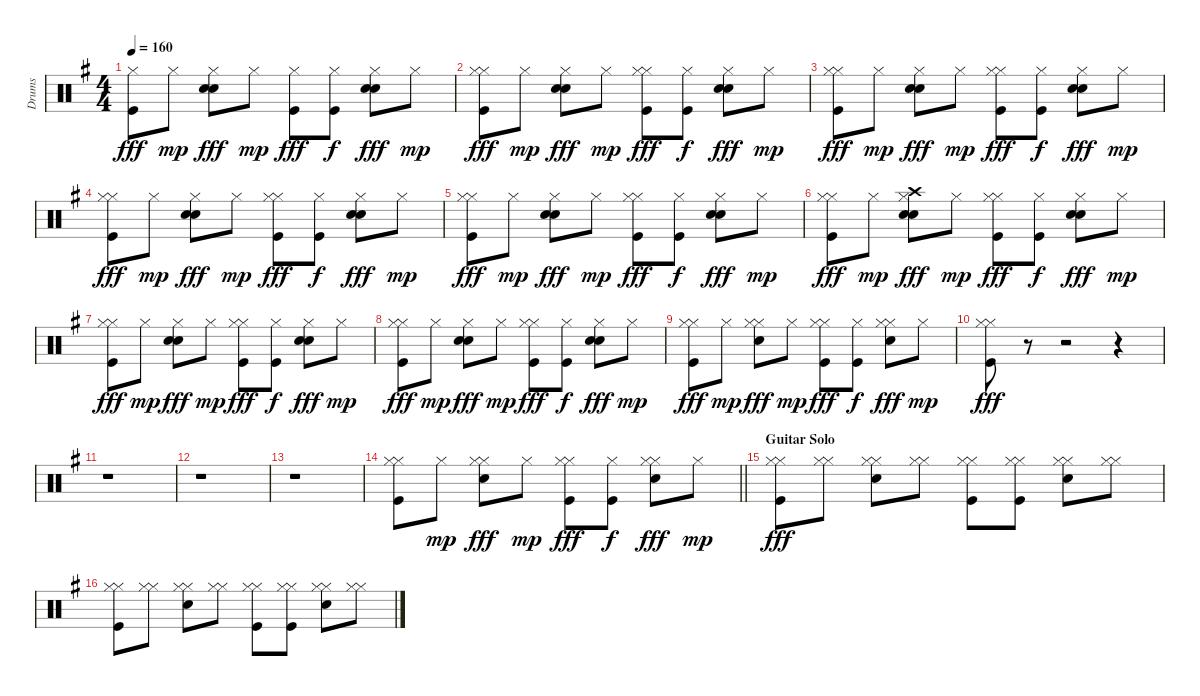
\track ("Drums" "Drums") {instrument percussion}
\staff {score}
\articulation defaults
\ts (4 4)
\tempo 160
\clef neutral
\ks g
("Hi-Hat (closed)" "Kick (hit)").8{dy fff} "Hi-Hat (closed)".8{dy mp} ("Snare (hit) 2" "Hi-Hat (closed)" "Electric Snare (hit)").8{dy fff} "Hi-Hat (closed)".8{dy mp} ("Hi-Hat (closed)" "Kick (hit)").8{dy fff} ("Hi-Hat (closed)" "Kick (hit)").8{dy f} ("Snare (hit) 2" "Hi-Hat (closed)" "Electric Snare (hit)").8{dy fff} "Hi-Hat (closed)".8{dy mp} |
("Hi-Hat (closed)" "Kick (hit)" "Hi-Hat (closed)").8{dy fff} "Hi-Hat (closed)".8{dy mp} ("Snare (hit) 2" "Hi-Hat (closed)" "Electric Snare (hit)").8{dy fff} "Hi-Hat (closed)".8{dy mp} ("Hi-Hat (closed)" "Kick (hit)" "Hi-Hat (closed)").8{dy fff} ("Hi-Hat (closed)" "Kick (hit)").8{dy f} ("Snare (hit) 2" "Hi-Hat (closed)" "Electric Snare (hit)").8{dy fff} "Hi-Hat (closed)".8{dy mp} |
("Hi-Hat (closed)" "Kick (hit)" "Hi-Hat (closed)").8{dy fff} "Hi-Hat (closed)".8{dy mp} ("Snare (hit) 2" "Hi-Hat (closed)" "Electric Snare (hit)").8{dy fff} "Hi-Hat (closed)".8{dy mp} ("Hi-Hat (closed)" "Kick (hit)" "Hi-Hat (closed)").8{dy fff} ("Hi-Hat (closed)" "Kick (hit)").8{dy f} ("Snare (hit) 2" "Hi-Hat (closed)" "Electric Snare (hit)").8{dy fff} "Hi-Hat (closed)".8{dy mp} |
("Hi-Hat (closed)" "Kick (hit)" "Hi-Hat (closed)").8{dy fff} "Hi-Hat (closed)".8{dy mp} ("Snare (hit) 2" "Hi-Hat (closed)" "Electric Snare (hit)").8{dy fff} "Hi-Hat (closed)".8{dy mp} ("Hi-Hat (closed)" "Kick (hit)" "Hi-Hat (closed)").8{dy fff} ("Hi-Hat (closed)" "Kick (hit)").8{dy f} ("Snare (hit) 2" "Hi-Hat (closed)" "Electric Snare (hit)").8{dy fff} "Hi-Hat (closed)".8{dy mp} |
("Hi-Hat (closed)" "Kick (hit)" "Hi-Hat (closed)").8{dy fff} "Hi-Hat (closed)".8{dy mp} ("Snare (hit) 2" "Hi-Hat (closed)" "Electric Snare (hit)").8{dy fff} "Hi-Hat (closed)".8{dy mp} ("Hi-Hat (closed)" "Kick (hit)" "Hi-Hat (closed)").8{dy fff} ("Hi-Hat (closed)" "Kick (hit)").8{dy f} ("Snare (hit) 2" "Hi-Hat (closed)" "Electric Snare (hit)").8{dy fff} "Hi-Hat (closed)".8{dy mp} |
("Hi-Hat (closed)" "Kick (hit)" "Hi-Hat (closed)").8{dy fff} "Hi-Hat (closed)".8{dy mp} ("Snare (hit) 2" "Hi-Hat (closed)" "Electric Snare (hit)" "Crash high (hit)").8{dy fff} "Hi-Hat (closed)".8{dy mp} ("Hi-Hat (closed)" "Kick (hit)" "Hi-Hat (closed)").8{dy fff} ("Hi-Hat (closed)" "Kick (hit)").8{dy f} ("Snare (hit) 2" "Hi-Hat (closed)" "Electric Snare (hit)").8{dy fff} "Hi-Hat (closed)".8{dy mp} |
("Hi-Hat (closed)" "Kick (hit)" "Hi-Hat (closed)").8{dy fff} "Hi-Hat (closed)".8{dy mp} ("Snare (hit) 2" "Hi-Hat (closed)" "Electric Snare (hit)").8{dy fff} "Hi-Hat (closed)".8{dy mp} ("Hi-Hat (closed)" "Kick (hit)" "Hi-Hat (closed)").8{dy fff} ("Hi-Hat (closed)" "Kick (hit)").8{dy f} ("Snare (hit) 2" "Hi-Hat (closed)" "Electric Snare (hit)").8{dy fff} "Hi-Hat (closed)".8{dy mp} |
("Hi-Hat (closed)" "Kick (hit)" "Hi-Hat (closed)").8{dy fff} "Hi-Hat (closed)".8{dy mp} ("Snare (hit) 2" "Hi-Hat (closed)" "Electric Snare (hit)").8{dy fff} "Hi-Hat (closed)".8{dy mp} ("Hi-Hat (closed)" "Kick (hit)" "Hi-Hat (closed)").8{dy fff} ("Hi-Hat (closed)" "Kick (hit)").8{dy f} ("Snare (hit) 2" "Hi-Hat (closed)" "Electric Snare (hit)").8{dy fff} "Hi-Hat (closed)".8{dy mp} |
("Hi-Hat (closed)" "Kick (hit)" "Hi-Hat (closed)").8{dy fff} "Hi-Hat (closed)".8{dy mp} ("Snare (hit) 2" "Hi-Hat (closed)" "Hi-Hat (closed)").8{dy fff} "Hi-Hat (closed)".8{dy mp} ("Hi-Hat (closed)" "Kick (hit)" "Hi-Hat (closed)").8{dy fff} ("Hi-Hat (closed)" "Kick (hit)").8{dy f} ("Snare (hit) 2" "Hi-Hat (closed)" "Hi-Hat (closed)").8{dy fff} "Hi-Hat (closed)".8{dy mp} |
("Hi-Hat (closed)" "Kick (hit)" "Hi-Hat (closed)").8{dy fff} r.8 r.2 r.4 |
r.1 |
r.1 |
r.1 |
\barLineRight lightlight
("Hi-Hat (closed)" "Kick (hit)" "Hi-Hat (closed)").8 "Hi-Hat (closed)".8{dy mp} ("Snare (hit) 2" "Hi-Hat (closed)" "Hi-Hat (closed)").8{dy fff} "Hi-Hat (closed)".8{dy mp} ("Hi-Hat (closed)" "Kick (hit)" "Hi-Hat (closed)").8{dy fff} ("Hi-Hat (closed)" "Kick (hit)").8{dy f} ("Snare (hit) 2" "Hi-Hat (closed)" "Hi-Hat (closed)").8{dy fff} "Hi-Hat (closed)".8{dy mp} |
\section ("" "Guitar Solo")
("Hi-Hat (closed)" "Kick (hit)" "Hi-Hat (closed)").8{dy fff} ("Hi-Hat (closed)" "Hi-Hat (closed)").8 ("Snare (hit) 2" "Hi-Hat (closed)" "Hi-Hat (closed)").8 ("Hi-Hat (closed)" "Hi-Hat (closed)").8 ("Hi-Hat (closed)" "Kick (hit)" "Hi-Hat (closed)").8 ("Hi-Hat (closed)" "Kick (hit)" "Hi-Hat (closed)").8 ("Snare (hit) 2" "Hi-Hat (closed)" "Hi-Hat (closed)").8 ("Hi-Hat (closed)" "Hi-Hat (closed)").8 |
("Hi-Hat (closed)" "Kick (hit)" "Hi-Hat (closed)").8 ("Hi-Hat (closed)" "Hi-Hat (closed)").8 ("Snare (hit) 2" "Hi-Hat (closed)" "Hi-Hat (closed)").8 ("Hi-Hat (closed)" "Hi-Hat (closed)").8 ("Hi-Hat (closed)" "Kick (hit)" "Hi-Hat (closed)").8 ("Hi-Hat (closed)" "Kick (hit)" "Hi-Hat (closed)").8 ("Snare (hit) 2" "Hi-Hat (closed)" "Hi-Hat (closed)").8 ("Hi-Hat (closed)" "Hi-Hat (closed)").8
